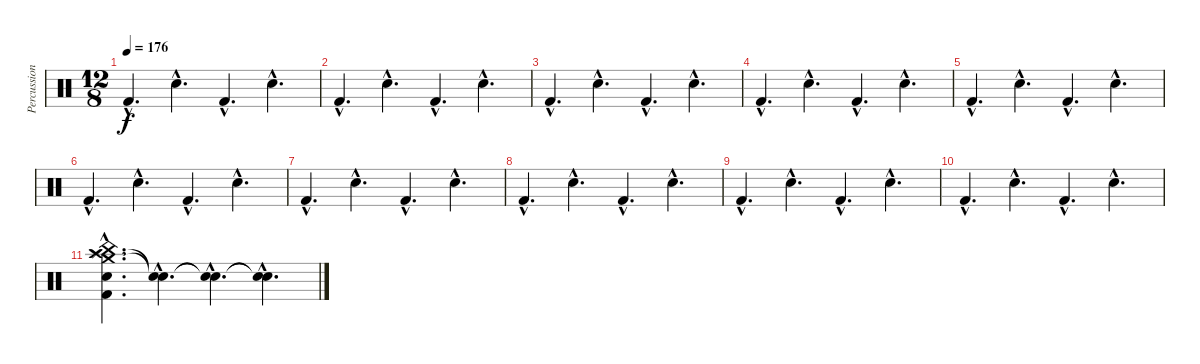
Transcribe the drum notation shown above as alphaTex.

\track ("Percussion" "Percussion") {instrument percussion}
\staff {score}
\articulation defaults
\ts (12 8)
\tempo 176
\clef neutral
\ks c "Kick (hit) 2"{hac}.4{d dy f} "Snare (hit) 2"{hac}.4{d} "Kick (hit) 2"{hac}.4{d} "Snare (hit) 2"{hac}.4{d}
|
"Kick (hit) 2"{hac}.4{d} "Snare (hit) 2"{hac}.4{d} "Kick (hit) 2"{hac}.4{d} "Snare (hit) 2"{hac}.4{d} |
"Kick (hit) 2"{hac}.4{d} "Snare (hit) 2"{hac}.4{d} "Kick (hit) 2"{hac}.4{d} "Snare (hit) 2"{hac}.4{d} |
"Kick (hit) 2"{hac}.4{d} "Snare (hit) 2"{hac}.4{d} "Kick (hit) 2"{hac}.4{d} "Snare (hit) 2"{hac}.4{d} |
"Kick (hit) 2"{hac}.4{d} "Snare (hit) 2"{hac}.4{d} "Kick (hit) 2"{hac}.4{d} "Snare (hit) 2"{hac}.4{d} |
"Kick (hit) 2"{hac}.4{d} "Snare (hit) 2"{hac}.4{d} "Kick (hit) 2"{hac}.4{d} "Snare (hit) 2"{hac}.4{d} |
"Kick (hit) 2"{hac}.4{d} "Snare (hit) 2"{hac}.4{d} "Kick (hit) 2"{hac}.4{d} "Snare (hit) 2"{hac}.4{d} |
"Kick (hit) 2"{hac}.4{d} "Snare (hit) 2"{hac}.4{d} "Kick (hit) 2"{hac}.4{d} "Snare (hit) 2"{hac}.4{d} |
"Kick (hit) 2"{hac}.4{d} "Snare (hit) 2"{hac}.4{d} "Kick (hit) 2"{hac}.4{d} "Snare (hit) 2"{hac}.4{d} |
"Kick (hit) 2"{hac}.4{d} "Snare (hit) 2"{hac}.4{d} "Kick (hit) 2"{hac}.4{d} "Snare (hit) 2"{hac}.4{d} |
("Crash medium (hit)"{hac} "Splash (hit)"{hac} "Kick (hit) 2"{hac} "Snare (hit) 2"{hac} "Crash high (hit)"{hac} "China (hit)"{hac}).4{d} ("Snare (hit)"{hac t} "Snare (hit)"{hac t}).4{d} ("Snare (hit)"{hac t} "Snare (hit)"{hac t}).4{d} ("Snare (hit)"{hac t} "Snare (hit)"{hac t}).4{d}
